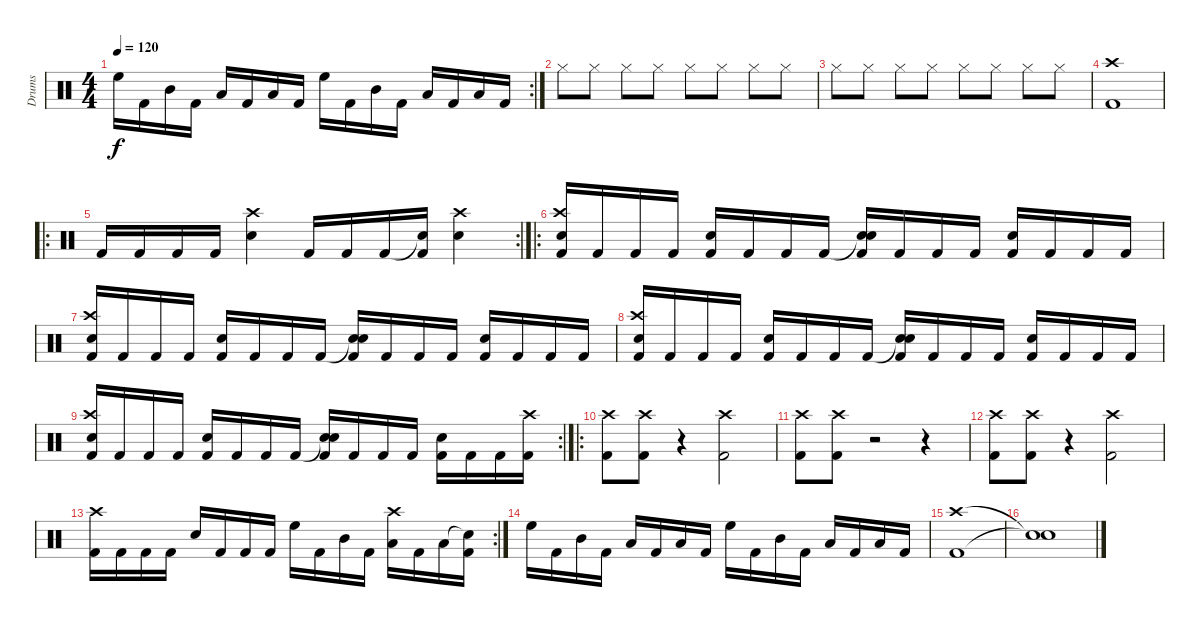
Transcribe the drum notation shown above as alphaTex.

\track ("Drums" "Drums") {instrument percussion}
\staff {score}
\articulation defaults
\rc 2
\ts (4 4)
\tempo 120
\clef neutral
\ks c "High Floor Tom (hit)".16{dy f} "Kick (hit) 2".16 "Mid Tom (hit)".16 "Kick (hit) 2".16 "Low Tom (hit)".16 "Kick (hit) 2".16 "Low Floor Tom (hit)".16 "Kick (hit) 2".16 "High Floor Tom (hit)".16 "Kick (hit) 2".16 "Mid Tom (hit)".16 "Kick (hit) 2".16 "Low Tom (hit)".16 "Kick (hit) 2".16 "Low Floor Tom (hit)".16 "Kick (hit) 2".16
|
"Hi-Hat (closed)".8 "Hi-Hat (closed)".8 "Hi-Hat (closed)".8 "Hi-Hat (closed)".8 "Hi-Hat (closed)".8 "Hi-Hat (closed)".8 "Hi-Hat (closed)".8 "Hi-Hat (closed)".8 |
"Hi-Hat (closed)".8 "Hi-Hat (closed)".8 "Hi-Hat (closed)".8 "Hi-Hat (closed)".8 "Hi-Hat (closed)".8 "Hi-Hat (closed)".8 "Hi-Hat (closed)".8 "Hi-Hat (closed)".8 |
("Crash high (hit)" "Kick (hit) 2").1 |
\ro
\rc 2 "Kick (hit) 2".16 "Kick (hit) 2".16 "Kick (hit) 2".16 "Kick (hit) 2".16
("Crash high (hit)" "Snare (hit) 2").4 "Kick (hit) 2".16 "Kick (hit) 2".16 "Kick (hit) 2".16 ("Snare (hit)"{t} "Kick (hit) 2").16 ("Crash high (hit)" "Snare (hit) 2").4 |
\ro
("Crash high (hit)" "Snare (hit) 2" "Kick (hit) 2").16 "Kick (hit) 2".16 "Kick (hit) 2".16 "Kick (hit) 2".16 ("Snare (hit) 2" "Kick (hit) 2").16 "Kick (hit) 2".16 "Kick (hit) 2".16 "Kick (hit) 2".16 ("Snare (hit)"{t} "Snare (hit) 2" "Kick (hit) 2").16 "Kick (hit) 2".16 "Kick (hit) 2".16 "Kick (hit) 2".16 ("Snare (hit) 2" "Kick (hit) 2").16 "Kick (hit) 2".16 "Kick (hit) 2".16 "Kick (hit) 2".16 |
("Crash high (hit)" "Snare (hit) 2" "Kick (hit) 2").16 "Kick (hit) 2".16 "Kick (hit) 2".16 "Kick (hit) 2".16 ("Snare (hit) 2" "Kick (hit) 2").16 "Kick (hit) 2".16 "Kick (hit) 2".16 "Kick (hit) 2".16 ("Snare (hit)"{t} "Snare (hit) 2" "Kick (hit) 2").16 "Kick (hit) 2".16 "Kick (hit) 2".16 "Kick (hit) 2".16 ("Snare (hit) 2" "Kick (hit) 2").16 "Kick (hit) 2".16 "Kick (hit) 2".16 "Kick (hit) 2".16 |
("Crash high (hit)" "Snare (hit) 2" "Kick (hit) 2").16 "Kick (hit) 2".16 "Kick (hit) 2".16 "Kick (hit) 2".16 ("Snare (hit) 2" "Kick (hit) 2").16 "Kick (hit) 2".16 "Kick (hit) 2".16 "Kick (hit) 2".16 ("Snare (hit)"{t} "Snare (hit) 2" "Kick (hit) 2").16 "Kick (hit) 2".16 "Kick (hit) 2".16 "Kick (hit) 2".16 ("Snare (hit) 2" "Kick (hit) 2").16 "Kick (hit) 2".16 "Kick (hit) 2".16 "Kick (hit) 2".16 |
\rc 2
("Crash high (hit)" "Snare (hit) 2" "Kick (hit) 2").16 "Kick (hit) 2".16 "Kick (hit) 2".16 "Kick (hit) 2".16 ("Snare (hit) 2" "Kick (hit) 2").16 "Kick (hit) 2".16 "Kick (hit) 2".16 "Kick (hit) 2".16 ("Snare (hit)"{t} "Snare (hit) 2" "Kick (hit) 2").16 "Kick (hit) 2".16 "Kick (hit) 2".16 "Kick (hit) 2".16 ("Snare (hit) 2" "Kick (hit) 2").16 "Kick (hit) 2".16 "Kick (hit) 2".16 ("Crash high (hit)" "Kick (hit) 2").16 |
\ro
("Crash high (hit)" "Kick (hit) 2").8 ("Crash high (hit)" "Kick (hit) 2").8 r.4 ("Crash high (hit)" "Kick (hit) 2").2 |
("Crash high (hit)" "Kick (hit) 2").8 ("Crash high (hit)" "Kick (hit) 2").8 r.2 r.4 |
("Crash high (hit)" "Kick (hit) 2").8 ("Crash high (hit)" "Kick (hit) 2").8 r.4 ("Crash high (hit)" "Kick (hit) 2").2 |
\rc 2
("Crash high (hit)" "Kick (hit) 2").16 "Kick (hit) 2".16 "Kick (hit) 2".16 "Kick (hit) 2".16 "Snare (hit) 2".16 "Kick (hit) 2".16 "Kick (hit) 2".16 "Kick (hit) 2".16 "High Floor Tom (hit)".16 "Kick (hit) 2".16 "Mid Tom (hit)".16 "Kick (hit) 2".16 ("Crash high (hit)" "Low Tom (hit)").16 "Kick (hit) 2".16 "Low Floor Tom (hit)".16 ("Snare (hit)"{t} "Kick (hit) 2").16 |
"High Floor Tom (hit)".16 "Kick (hit) 2".16 "Mid Tom (hit)".16 "Kick (hit) 2".16 "Low Tom (hit)".16 "Kick (hit) 2".16 "Low Floor Tom (hit)".16 "Kick (hit) 2".16 "High Floor Tom (hit)".16 "Kick (hit) 2".16 "Mid Tom (hit)".16 "Kick (hit) 2".16 "Low Tom (hit)".16 "Kick (hit) 2".16 "Low Floor Tom (hit)".16 "Kick (hit) 2".16 |
("Crash high (hit)" "Kick (hit) 2").1 |
("Snare (hit)"{t} "Snare (hit)"{t}).1
